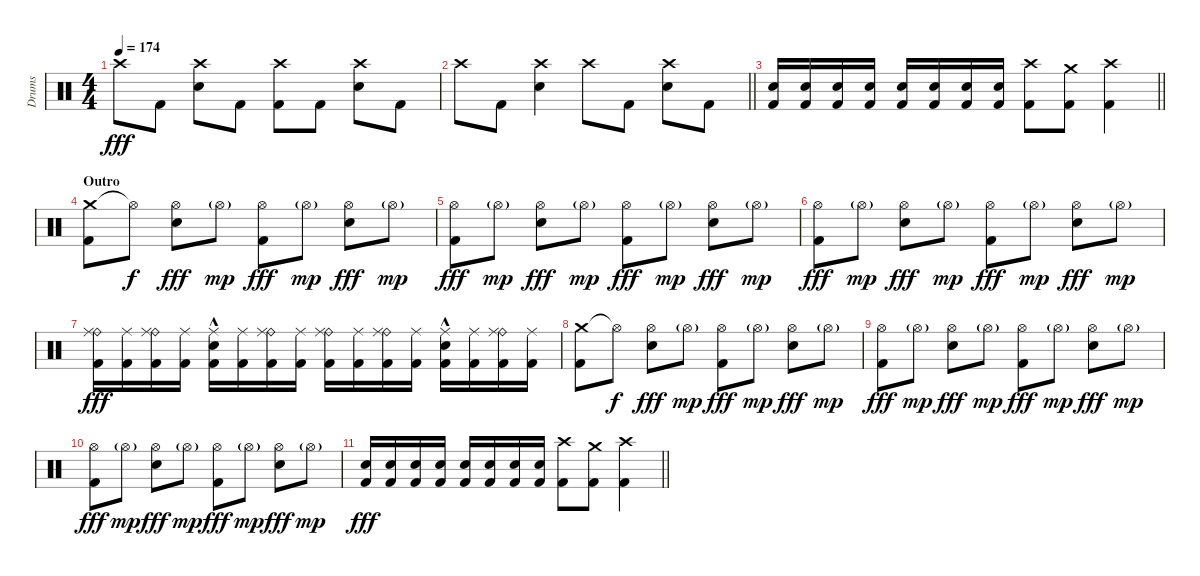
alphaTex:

\track ("Drums" "Drums") {instrument percussion}
\staff {score}
\articulation defaults
\ts (4 4)
\tempo 174
\clef neutral
\ks c "Crash high (hit)".8{dy fff} "Kick (hit) 2".8
("Crash high (hit)" "Snare (hit) 2").8 "Kick (hit) 2".8 ("Crash high (hit)" "Kick (hit) 2").8 "Kick (hit) 2".8 ("Crash high (hit)" "Snare (hit) 2").8 "Kick (hit) 2".8 |
\barLineRight lightlight "Crash high (hit)".8 "Kick (hit) 2".8
("Crash high (hit)" "Snare (hit) 2").4 "Crash high (hit)".8 "Kick (hit) 2".8 ("Crash high (hit)" "Snare (hit) 2").8 "Kick (hit) 2".8 |
\barLineRight lightlight
("Snare (hit) 2" "Kick (hit) 2").16 ("Snare (hit) 2" "Kick (hit) 2").16 ("Snare (hit) 2" "Kick (hit) 2").16 ("Snare (hit) 2" "Kick (hit) 2").16 ("Snare (hit) 2" "Kick (hit) 2").16 ("Snare (hit) 2" "Kick (hit) 2").16 ("Snare (hit) 2" "Kick (hit) 2").16 ("Snare (hit) 2" "Kick (hit) 2").16 ("Crash high (hit)" "Kick (hit) 2").8 ("Crash medium (hit)" "Kick (hit) 2").8 ("Crash high (hit)" "Kick (hit) 2").4 |
\section ("" "Outro")
("Crash medium (hit)" "Kick (hit) 2").8 "Hi-Hat (open)"{t}.8{dy f} ("Hi-Hat (open)" "Snare (hit) 2").8{dy fff} "Hi-Hat (open)"{g}.8{dy mp} ("Hi-Hat (open)" "Kick (hit) 2").8{dy fff} "Hi-Hat (open)"{g}.8{dy mp} ("Hi-Hat (open)" "Snare (hit) 2").8{dy fff} "Hi-Hat (open)"{g}.8{dy mp} |
("Hi-Hat (open)" "Kick (hit) 2").8{dy fff} "Hi-Hat (open)"{g}.8{dy mp} ("Hi-Hat (open)" "Snare (hit) 2").8{dy fff} "Hi-Hat (open)"{g}.8{dy mp} ("Hi-Hat (open)" "Kick (hit) 2").8{dy fff} "Hi-Hat (open)"{g}.8{dy mp} ("Hi-Hat (open)" "Snare (hit) 2").8{dy fff} "Hi-Hat (open)"{g}.8{dy mp} |
("Hi-Hat (open)" "Kick (hit) 2").8{dy fff} "Hi-Hat (open)"{g}.8{dy mp} ("Hi-Hat (open)" "Snare (hit) 2").8{dy fff} "Hi-Hat (open)"{g}.8{dy mp} ("Hi-Hat (open)" "Kick (hit) 2").8{dy fff} "Hi-Hat (open)"{g}.8{dy mp} ("Hi-Hat (open)" "Snare (hit) 2").8{dy fff} "Hi-Hat (open)"{g}.8{dy mp} |
("Ride (bell)" "Ride (middle)" "Kick (hit) 2").16{dy fff} ("Ride (middle)" "Kick (hit) 2").16 ("Ride (bell)" "Ride (middle)" "Kick (hit) 2").16 ("Ride (middle)" "Kick (hit) 2").16 ("Ride (middle)" "Snare (hit) 2"{hac} "Kick (hit) 2").16 ("Ride (middle)" "Kick (hit) 2").16 ("Ride (bell)" "Ride (middle)" "Kick (hit) 2").16 ("Ride (middle)" "Kick (hit) 2").16 ("Ride (bell)" "Ride (middle)" "Kick (hit) 2").16 ("Ride (middle)" "Kick (hit) 2").16 ("Ride (bell)" "Ride (middle)" "Kick (hit) 2").16 ("Ride (middle)" "Kick (hit) 2").16 ("Ride (middle)" "Snare (hit) 2"{hac} "Kick (hit) 2").16 ("Ride (middle)" "Kick (hit) 2").16 ("Ride (bell)" "Ride (middle)" "Kick (hit) 2").16 ("Ride (middle)" "Kick (hit) 2").16 |
("Crash medium (hit)" "Kick (hit) 2").8 "Hi-Hat (open)"{t}.8{dy f} ("Hi-Hat (open)" "Snare (hit) 2").8{dy fff} "Hi-Hat (open)"{g}.8{dy mp} ("Hi-Hat (open)" "Kick (hit) 2").8{dy fff} "Hi-Hat (open)"{g}.8{dy mp} ("Hi-Hat (open)" "Snare (hit) 2").8{dy fff} "Hi-Hat (open)"{g}.8{dy mp} |
("Hi-Hat (open)" "Kick (hit) 2").8{dy fff} "Hi-Hat (open)"{g}.8{dy mp} ("Hi-Hat (open)" "Snare (hit) 2").8{dy fff} "Hi-Hat (open)"{g}.8{dy mp} ("Hi-Hat (open)" "Kick (hit) 2").8{dy fff} "Hi-Hat (open)"{g}.8{dy mp} ("Hi-Hat (open)" "Snare (hit) 2").8{dy fff} "Hi-Hat (open)"{g}.8{dy mp} |
("Hi-Hat (open)" "Kick (hit) 2").8{dy fff} "Hi-Hat (open)"{g}.8{dy mp} ("Hi-Hat (open)" "Snare (hit) 2").8{dy fff} "Hi-Hat (open)"{g}.8{dy mp} ("Hi-Hat (open)" "Kick (hit) 2").8{dy fff} "Hi-Hat (open)"{g}.8{dy mp} ("Hi-Hat (open)" "Snare (hit) 2").8{dy fff} "Hi-Hat (open)"{g}.8{dy mp} |
\barLineRight lightlight
("Snare (hit) 2" "Kick (hit) 2").16{dy fff} ("Snare (hit) 2" "Kick (hit) 2").16 ("Snare (hit) 2" "Kick (hit) 2").16 ("Snare (hit) 2" "Kick (hit) 2").16 ("Snare (hit) 2" "Kick (hit) 2").16 ("Snare (hit) 2" "Kick (hit) 2").16 ("Snare (hit) 2" "Kick (hit) 2").16 ("Snare (hit) 2" "Kick (hit) 2").16 ("Crash high (hit)" "Kick (hit) 2").8 ("Crash medium (hit)" "Kick (hit) 2").8 ("Crash high (hit)" "Kick (hit) 2").4
